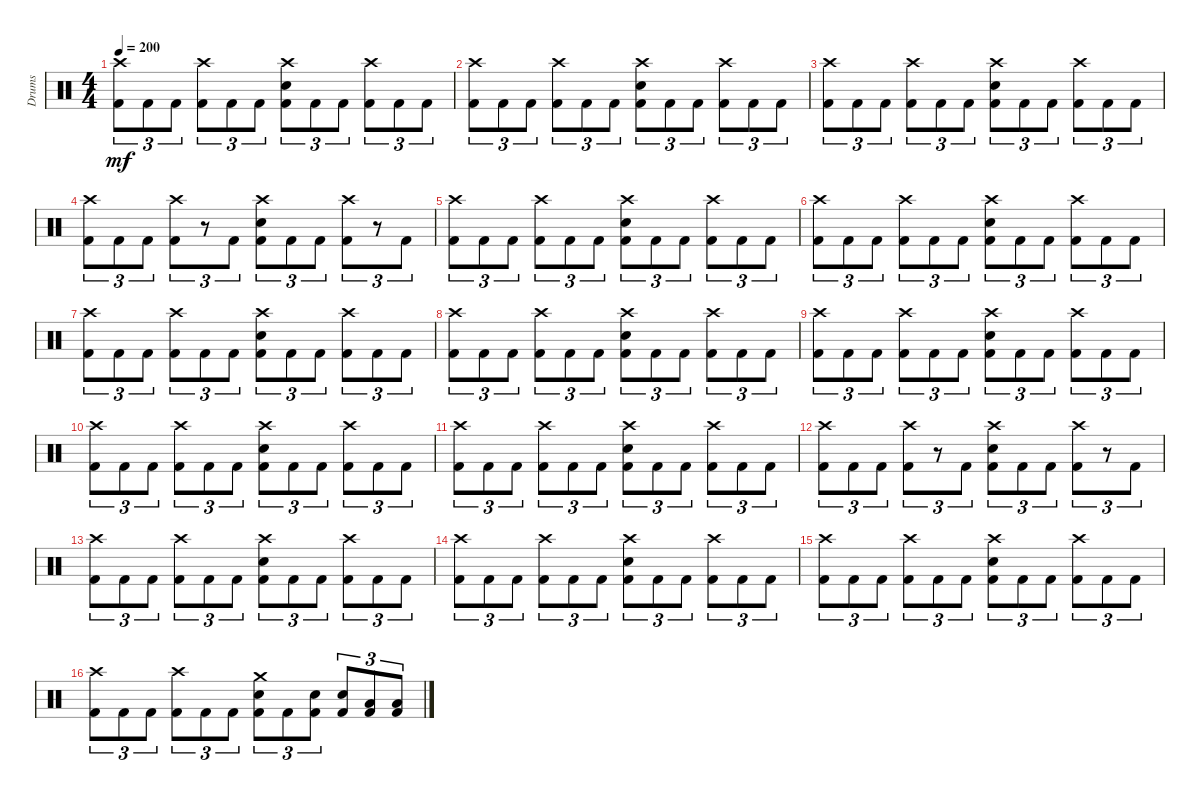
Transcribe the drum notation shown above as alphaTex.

\track ("Drums" "Drums") {instrument percussion}
\staff {score}
\articulation defaults
\ts (4 4)
\tempo 200
\clef neutral
\ks c
("Crash high (hit)" "Kick (hit) 2").8{tu (3 2) dy mf} "Kick (hit) 2".8{tu (3 2)} "Kick (hit) 2".8{tu (3 2)} ("Crash high (hit)" "Kick (hit) 2").8{tu (3 2)} "Kick (hit) 2".8{tu (3 2)} "Kick (hit) 2".8{tu (3 2)} ("Crash high (hit)" "Electric Snare (hit)" "Kick (hit) 2").8{tu (3 2)} "Kick (hit) 2".8{tu (3 2)} "Kick (hit) 2".8{tu (3 2)} ("Crash high (hit)" "Kick (hit) 2").8{tu (3 2)} "Kick (hit) 2".8{tu (3 2)} "Kick (hit) 2".8{tu (3 2)} |
("Crash high (hit)" "Kick (hit) 2").8{tu (3 2)} "Kick (hit) 2".8{tu (3 2)} "Kick (hit) 2".8{tu (3 2)} ("Crash high (hit)" "Kick (hit) 2").8{tu (3 2)} "Kick (hit) 2".8{tu (3 2)} "Kick (hit) 2".8{tu (3 2)} ("Crash high (hit)" "Electric Snare (hit)" "Kick (hit) 2").8{tu (3 2)} "Kick (hit) 2".8{tu (3 2)} "Kick (hit) 2".8{tu (3 2)} ("Crash high (hit)" "Kick (hit) 2").8{tu (3 2)} "Kick (hit) 2".8{tu (3 2)} "Kick (hit) 2".8{tu (3 2)} |
("Crash high (hit)" "Kick (hit) 2").8{tu (3 2)} "Kick (hit) 2".8{tu (3 2)} "Kick (hit) 2".8{tu (3 2)} ("Crash high (hit)" "Kick (hit) 2").8{tu (3 2)} "Kick (hit) 2".8{tu (3 2)} "Kick (hit) 2".8{tu (3 2)} ("Crash high (hit)" "Electric Snare (hit)" "Kick (hit) 2").8{tu (3 2)} "Kick (hit) 2".8{tu (3 2)} "Kick (hit) 2".8{tu (3 2)} ("Crash high (hit)" "Kick (hit) 2").8{tu (3 2)} "Kick (hit) 2".8{tu (3 2)} "Kick (hit) 2".8{tu (3 2)} |
("Crash high (hit)" "Kick (hit) 2").8{tu (3 2)} "Kick (hit) 2".8{tu (3 2)} "Kick (hit) 2".8{tu (3 2)} ("Crash high (hit)" "Kick (hit) 2").8{tu (3 2)} r.8{tu (3 2)} "Kick (hit) 2".8{tu (3 2)} ("Crash high (hit)" "Electric Snare (hit)" "Kick (hit) 2").8{tu (3 2)} "Kick (hit) 2".8{tu (3 2)} "Kick (hit) 2".8{tu (3 2)} ("Crash high (hit)" "Kick (hit) 2").8{tu (3 2)} r.8{tu (3 2)} "Kick (hit) 2".8{tu (3 2)} |
("Crash high (hit)" "Kick (hit) 2").8{tu (3 2)} "Kick (hit) 2".8{tu (3 2)} "Kick (hit) 2".8{tu (3 2)} ("Crash high (hit)" "Kick (hit) 2").8{tu (3 2)} "Kick (hit) 2".8{tu (3 2)} "Kick (hit) 2".8{tu (3 2)} ("Crash high (hit)" "Electric Snare (hit)" "Kick (hit) 2").8{tu (3 2)} "Kick (hit) 2".8{tu (3 2)} "Kick (hit) 2".8{tu (3 2)} ("Crash high (hit)" "Kick (hit) 2").8{tu (3 2)} "Kick (hit) 2".8{tu (3 2)} "Kick (hit) 2".8{tu (3 2)} |
("Crash high (hit)" "Kick (hit) 2").8{tu (3 2)} "Kick (hit) 2".8{tu (3 2)} "Kick (hit) 2".8{tu (3 2)} ("Crash high (hit)" "Kick (hit) 2").8{tu (3 2)} "Kick (hit) 2".8{tu (3 2)} "Kick (hit) 2".8{tu (3 2)} ("Crash high (hit)" "Electric Snare (hit)" "Kick (hit) 2").8{tu (3 2)} "Kick (hit) 2".8{tu (3 2)} "Kick (hit) 2".8{tu (3 2)} ("Crash high (hit)" "Kick (hit) 2").8{tu (3 2)} "Kick (hit) 2".8{tu (3 2)} "Kick (hit) 2".8{tu (3 2)} |
("Crash high (hit)" "Kick (hit) 2").8{tu (3 2)} "Kick (hit) 2".8{tu (3 2)} "Kick (hit) 2".8{tu (3 2)} ("Crash high (hit)" "Kick (hit) 2").8{tu (3 2)} "Kick (hit) 2".8{tu (3 2)} "Kick (hit) 2".8{tu (3 2)} ("Crash high (hit)" "Electric Snare (hit)" "Kick (hit) 2").8{tu (3 2)} "Kick (hit) 2".8{tu (3 2)} "Kick (hit) 2".8{tu (3 2)} ("Crash high (hit)" "Kick (hit) 2").8{tu (3 2)} "Kick (hit) 2".8{tu (3 2)} "Kick (hit) 2".8{tu (3 2)} |
("Crash high (hit)" "Kick (hit) 2").8{tu (3 2)} "Kick (hit) 2".8{tu (3 2)} "Kick (hit) 2".8{tu (3 2)} ("Crash high (hit)" "Kick (hit) 2").8{tu (3 2)} "Kick (hit) 2".8{tu (3 2)} "Kick (hit) 2".8{tu (3 2)} ("Crash high (hit)" "Electric Snare (hit)" "Kick (hit) 2").8{tu (3 2)} "Kick (hit) 2".8{tu (3 2)} "Kick (hit) 2".8{tu (3 2)} ("Crash high (hit)" "Kick (hit) 2").8{tu (3 2)} "Kick (hit) 2".8{tu (3 2)} "Kick (hit) 2".8{tu (3 2)} |
("Crash high (hit)" "Kick (hit) 2").8{tu (3 2)} "Kick (hit) 2".8{tu (3 2)} "Kick (hit) 2".8{tu (3 2)} ("Crash high (hit)" "Kick (hit) 2").8{tu (3 2)} "Kick (hit) 2".8{tu (3 2)} "Kick (hit) 2".8{tu (3 2)} ("Crash high (hit)" "Electric Snare (hit)" "Kick (hit) 2").8{tu (3 2)} "Kick (hit) 2".8{tu (3 2)} "Kick (hit) 2".8{tu (3 2)} ("Crash high (hit)" "Kick (hit) 2").8{tu (3 2)} "Kick (hit) 2".8{tu (3 2)} "Kick (hit) 2".8{tu (3 2)} |
("Crash high (hit)" "Kick (hit) 2").8{tu (3 2)} "Kick (hit) 2".8{tu (3 2)} "Kick (hit) 2".8{tu (3 2)} ("Crash high (hit)" "Kick (hit) 2").8{tu (3 2)} "Kick (hit) 2".8{tu (3 2)} "Kick (hit) 2".8{tu (3 2)} ("Crash high (hit)" "Electric Snare (hit)" "Kick (hit) 2").8{tu (3 2)} "Kick (hit) 2".8{tu (3 2)} "Kick (hit) 2".8{tu (3 2)} ("Crash high (hit)" "Kick (hit) 2").8{tu (3 2)} "Kick (hit) 2".8{tu (3 2)} "Kick (hit) 2".8{tu (3 2)} |
("Crash high (hit)" "Kick (hit) 2").8{tu (3 2)} "Kick (hit) 2".8{tu (3 2)} "Kick (hit) 2".8{tu (3 2)} ("Crash high (hit)" "Kick (hit) 2").8{tu (3 2)} "Kick (hit) 2".8{tu (3 2)} "Kick (hit) 2".8{tu (3 2)} ("Crash high (hit)" "Electric Snare (hit)" "Kick (hit) 2").8{tu (3 2)} "Kick (hit) 2".8{tu (3 2)} "Kick (hit) 2".8{tu (3 2)} ("Crash high (hit)" "Kick (hit) 2").8{tu (3 2)} "Kick (hit) 2".8{tu (3 2)} "Kick (hit) 2".8{tu (3 2)} |
("Crash high (hit)" "Kick (hit) 2").8{tu (3 2)} "Kick (hit) 2".8{tu (3 2)} "Kick (hit) 2".8{tu (3 2)} ("Crash high (hit)" "Kick (hit) 2").8{tu (3 2)} r.8{tu (3 2)} "Kick (hit) 2".8{tu (3 2)} ("Crash high (hit)" "Electric Snare (hit)" "Kick (hit) 2").8{tu (3 2)} "Kick (hit) 2".8{tu (3 2)} "Kick (hit) 2".8{tu (3 2)} ("Crash high (hit)" "Kick (hit) 2").8{tu (3 2)} r.8{tu (3 2)} "Kick (hit) 2".8{tu (3 2)} |
("Crash high (hit)" "Kick (hit) 2").8{tu (3 2)} "Kick (hit) 2".8{tu (3 2)} "Kick (hit) 2".8{tu (3 2)} ("Crash high (hit)" "Kick (hit) 2").8{tu (3 2)} "Kick (hit) 2".8{tu (3 2)} "Kick (hit) 2".8{tu (3 2)} ("Crash high (hit)" "Electric Snare (hit)" "Kick (hit) 2").8{tu (3 2)} "Kick (hit) 2".8{tu (3 2)} "Kick (hit) 2".8{tu (3 2)} ("Crash high (hit)" "Kick (hit) 2").8{tu (3 2)} "Kick (hit) 2".8{tu (3 2)} "Kick (hit) 2".8{tu (3 2)} |
("Crash high (hit)" "Kick (hit) 2").8{tu (3 2)} "Kick (hit) 2".8{tu (3 2)} "Kick (hit) 2".8{tu (3 2)} ("Crash high (hit)" "Kick (hit) 2").8{tu (3 2)} "Kick (hit) 2".8{tu (3 2)} "Kick (hit) 2".8{tu (3 2)} ("Crash high (hit)" "Electric Snare (hit)" "Kick (hit) 2").8{tu (3 2)} "Kick (hit) 2".8{tu (3 2)} "Kick (hit) 2".8{tu (3 2)} ("Crash high (hit)" "Kick (hit) 2").8{tu (3 2)} "Kick (hit) 2".8{tu (3 2)} "Kick (hit) 2".8{tu (3 2)} |
("Crash high (hit)" "Kick (hit) 2").8{tu (3 2)} "Kick (hit) 2".8{tu (3 2)} "Kick (hit) 2".8{tu (3 2)} ("Crash high (hit)" "Kick (hit) 2").8{tu (3 2)} "Kick (hit) 2".8{tu (3 2)} "Kick (hit) 2".8{tu (3 2)} ("Crash high (hit)" "Electric Snare (hit)" "Kick (hit) 2").8{tu (3 2)} "Kick (hit) 2".8{tu (3 2)} "Kick (hit) 2".8{tu (3 2)} ("Crash high (hit)" "Kick (hit) 2").8{tu (3 2)} "Kick (hit) 2".8{tu (3 2)} "Kick (hit) 2".8{tu (3 2)} |
("Crash high (hit)" "Kick (hit) 2").8{tu (3 2)} "Kick (hit) 2".8{tu (3 2)} "Kick (hit) 2".8{tu (3 2)} ("Crash high (hit)" "Kick (hit) 2").8{tu (3 2)} "Kick (hit) 2".8{tu (3 2)} "Kick (hit) 2".8{tu (3 2)} ("Crash medium (hit)" "Electric Snare (hit)" "Kick (hit) 2").8{tu (3 2)} "Kick (hit) 2".8{tu (3 2)} ("Electric Snare (hit)" "Kick (hit) 2").8{tu (3 2)} ("Electric Snare (hit)" "Kick (hit) 2").8{tu (3 2)} ("Low Tom (hit)" "Kick (hit) 2").8{tu (3 2)} ("Low Tom (hit)" "Kick (hit) 2").8{tu (3 2)}
